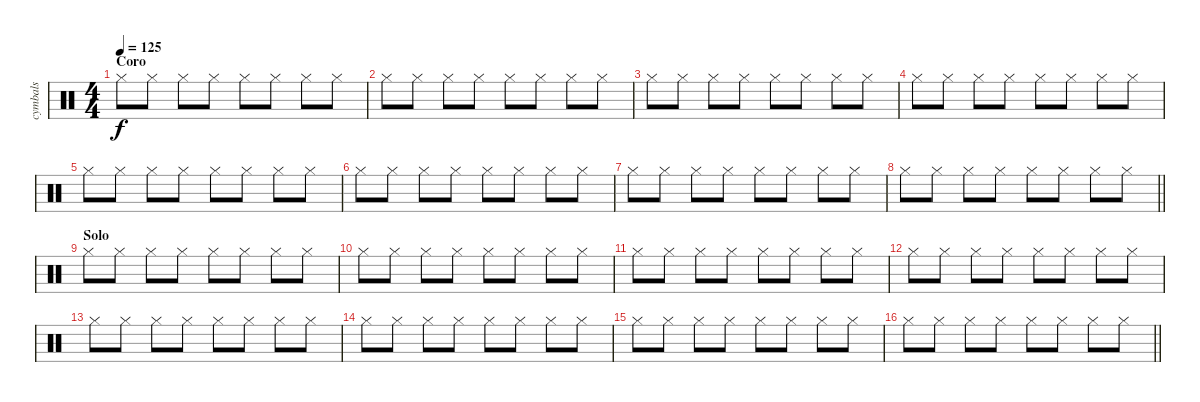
\track ("cymbals" "cymbals") {instrument percussion}
\staff {score}
\articulation defaults
\ts (4 4)
\section ("" "Coro")
\tempo 125
\clef neutral
\ks c "Hi-Hat (closed)".8{dy f} "Hi-Hat (closed)".8 "Hi-Hat (closed)".8 "Hi-Hat (closed)".8 "Hi-Hat (closed)".8 "Hi-Hat (closed)".8 "Hi-Hat (closed)".8 "Hi-Hat (closed)".8
|
"Hi-Hat (closed)".8 "Hi-Hat (closed)".8 "Hi-Hat (closed)".8 "Hi-Hat (closed)".8 "Hi-Hat (closed)".8 "Hi-Hat (closed)".8 "Hi-Hat (closed)".8 "Hi-Hat (closed)".8 |
"Hi-Hat (closed)".8 "Hi-Hat (closed)".8 "Hi-Hat (closed)".8 "Hi-Hat (closed)".8 "Hi-Hat (closed)".8 "Hi-Hat (closed)".8 "Hi-Hat (closed)".8 "Hi-Hat (closed)".8 |
"Hi-Hat (closed)".8 "Hi-Hat (closed)".8 "Hi-Hat (closed)".8 "Hi-Hat (closed)".8 "Hi-Hat (closed)".8 "Hi-Hat (closed)".8 "Hi-Hat (closed)".8 "Hi-Hat (closed)".8 |
"Hi-Hat (closed)".8 "Hi-Hat (closed)".8 "Hi-Hat (closed)".8 "Hi-Hat (closed)".8 "Hi-Hat (closed)".8 "Hi-Hat (closed)".8 "Hi-Hat (closed)".8 "Hi-Hat (closed)".8 |
"Hi-Hat (closed)".8 "Hi-Hat (closed)".8 "Hi-Hat (closed)".8 "Hi-Hat (closed)".8 "Hi-Hat (closed)".8 "Hi-Hat (closed)".8 "Hi-Hat (closed)".8 "Hi-Hat (closed)".8 |
"Hi-Hat (closed)".8 "Hi-Hat (closed)".8 "Hi-Hat (closed)".8 "Hi-Hat (closed)".8 "Hi-Hat (closed)".8 "Hi-Hat (closed)".8 "Hi-Hat (closed)".8 "Hi-Hat (closed)".8 |
\barLineRight lightlight "Hi-Hat (closed)".8 "Hi-Hat (closed)".8 "Hi-Hat (closed)".8 "Hi-Hat (closed)".8 "Hi-Hat (closed)".8 "Hi-Hat (closed)".8 "Hi-Hat (closed)".8 "Hi-Hat (closed)".8
|
\section ("" "Solo")
"Hi-Hat (closed)".8 "Hi-Hat (closed)".8 "Hi-Hat (closed)".8 "Hi-Hat (closed)".8 "Hi-Hat (closed)".8 "Hi-Hat (closed)".8 "Hi-Hat (closed)".8 "Hi-Hat (closed)".8 |
"Hi-Hat (closed)".8 "Hi-Hat (closed)".8 "Hi-Hat (closed)".8 "Hi-Hat (closed)".8 "Hi-Hat (closed)".8 "Hi-Hat (closed)".8 "Hi-Hat (closed)".8 "Hi-Hat (closed)".8 |
"Hi-Hat (closed)".8 "Hi-Hat (closed)".8 "Hi-Hat (closed)".8 "Hi-Hat (closed)".8 "Hi-Hat (closed)".8 "Hi-Hat (closed)".8 "Hi-Hat (closed)".8 "Hi-Hat (closed)".8 |
"Hi-Hat (closed)".8 "Hi-Hat (closed)".8 "Hi-Hat (closed)".8 "Hi-Hat (closed)".8 "Hi-Hat (closed)".8 "Hi-Hat (closed)".8 "Hi-Hat (closed)".8 "Hi-Hat (closed)".8 |
"Hi-Hat (closed)".8 "Hi-Hat (closed)".8 "Hi-Hat (closed)".8 "Hi-Hat (closed)".8 "Hi-Hat (closed)".8 "Hi-Hat (closed)".8 "Hi-Hat (closed)".8 "Hi-Hat (closed)".8 |
"Hi-Hat (closed)".8 "Hi-Hat (closed)".8 "Hi-Hat (closed)".8 "Hi-Hat (closed)".8 "Hi-Hat (closed)".8 "Hi-Hat (closed)".8 "Hi-Hat (closed)".8 "Hi-Hat (closed)".8 |
"Hi-Hat (closed)".8 "Hi-Hat (closed)".8 "Hi-Hat (closed)".8 "Hi-Hat (closed)".8 "Hi-Hat (closed)".8 "Hi-Hat (closed)".8 "Hi-Hat (closed)".8 "Hi-Hat (closed)".8 |
\barLineRight lightlight "Hi-Hat (closed)".8 "Hi-Hat (closed)".8 "Hi-Hat (closed)".8 "Hi-Hat (closed)".8 "Hi-Hat (closed)".8 "Hi-Hat (closed)".8 "Hi-Hat (closed)".8 "Hi-Hat (closed)".8
